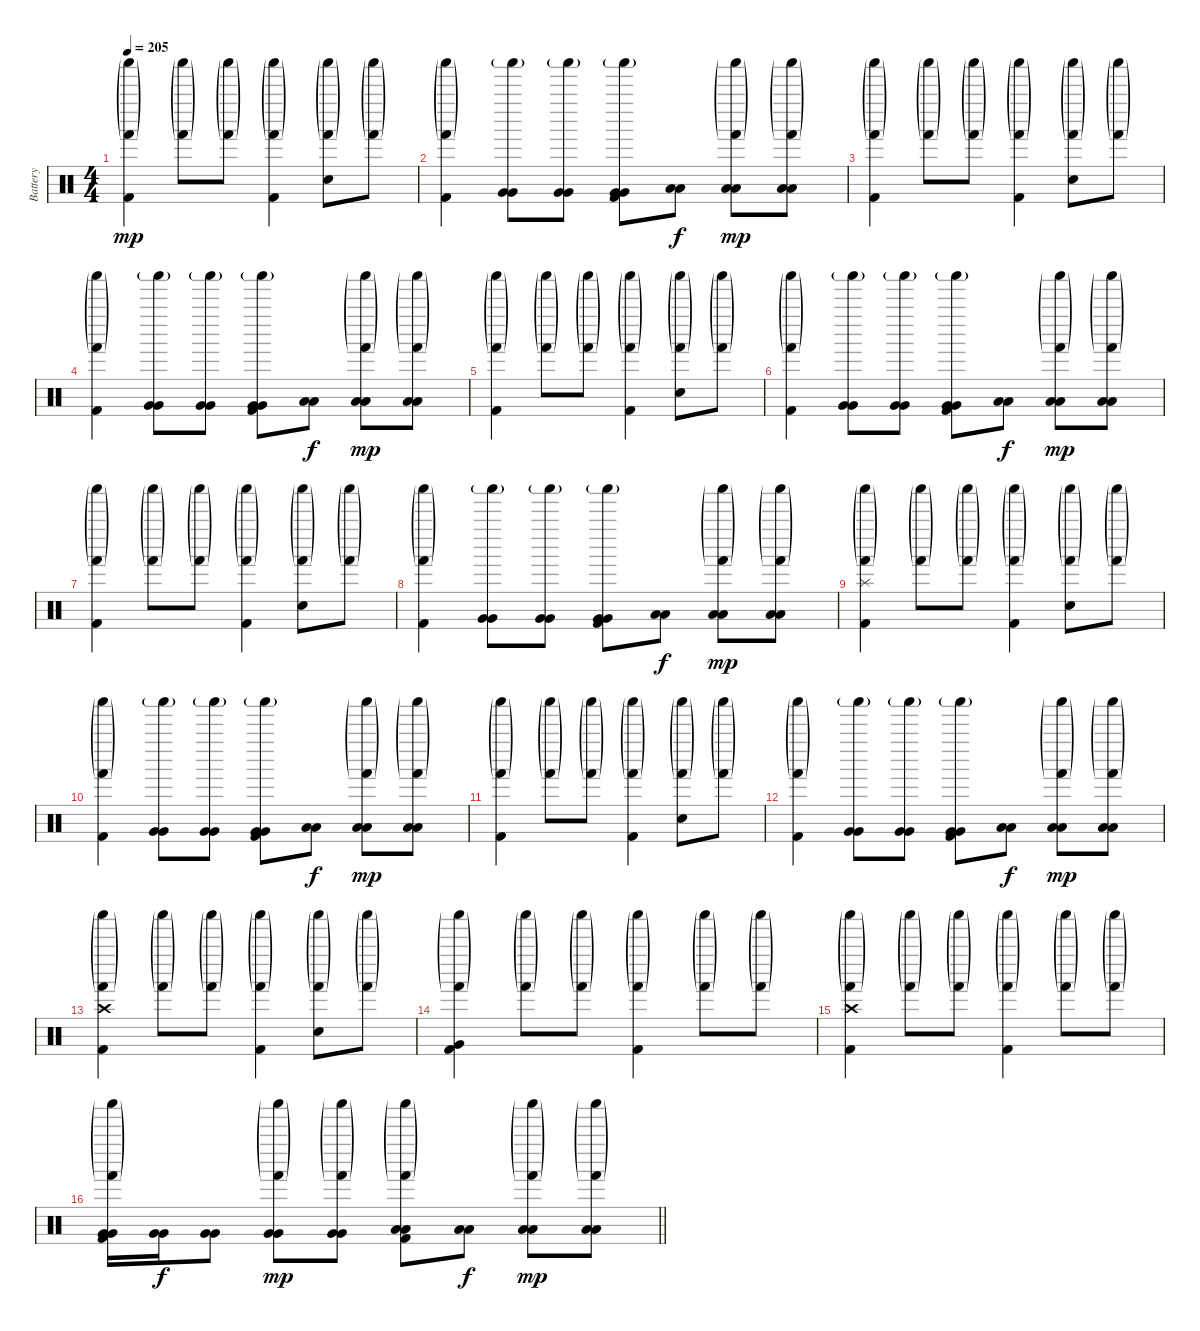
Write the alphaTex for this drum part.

\track ("Battery" "Battery") {instrument percussion}
\staff {score}
\articulation defaults
\ts (4 4)
\tempo 205
\clef neutral
\ks c
("Shaker (hit)"{g} "Hand (hit)"{g} "Kick (hit) 2").4{dy mp} ("Shaker (hit)"{g} "Hand (hit)"{g}).8 ("Shaker (hit)"{g} "Hand (hit)"{g}).8 ("Shaker (hit)"{g} "Hand (hit)"{g} "Kick (hit) 2").4 ("Shaker (hit)"{g} "Hand (hit)"{g} "Electric Snare (hit)").8 ("Shaker (hit)"{g} "Hand (hit)"{g}).8 |
("Shaker (hit)"{g} "Hand (hit)"{g} "Kick (hit) 2").4 ("Shaker (hit)"{g} "Very Low Tom (hit)" "Very Low Tom (hit)").8 ("Shaker (hit)"{g} "Very Low Tom (hit)" "Very Low Tom (hit)").8 ("Shaker (hit)"{g} "Very Low Tom (hit)" "Very Low Tom (hit)" "Kick (hit) 2").8 ("Low Floor Tom (hit)" "Low Floor Tom (hit)").8{dy f} ("Shaker (hit)"{g} "Hand (hit)"{g} "Low Floor Tom (hit)" "Low Floor Tom (hit)").8{dy mp} ("Shaker (hit)"{g} "Hand (hit)"{g} "Low Floor Tom (hit)" "Low Floor Tom (hit)").8 |
("Shaker (hit)"{g} "Hand (hit)"{g} "Kick (hit) 2").4 ("Shaker (hit)"{g} "Hand (hit)"{g}).8 ("Shaker (hit)"{g} "Hand (hit)"{g}).8 ("Shaker (hit)"{g} "Hand (hit)"{g} "Kick (hit) 2").4 ("Shaker (hit)"{g} "Hand (hit)"{g} "Electric Snare (hit)").8 ("Shaker (hit)"{g} "Hand (hit)"{g}).8 |
("Shaker (hit)"{g} "Hand (hit)"{g} "Kick (hit) 2").4 ("Shaker (hit)"{g} "Very Low Tom (hit)" "Very Low Tom (hit)").8 ("Shaker (hit)"{g} "Very Low Tom (hit)" "Very Low Tom (hit)").8 ("Shaker (hit)"{g} "Very Low Tom (hit)" "Very Low Tom (hit)" "Kick (hit) 2").8 ("Low Floor Tom (hit)" "Low Floor Tom (hit)").8{dy f} ("Shaker (hit)"{g} "Hand (hit)"{g} "Low Floor Tom (hit)" "Low Floor Tom (hit)").8{dy mp} ("Shaker (hit)"{g} "Hand (hit)"{g} "Low Floor Tom (hit)" "Low Floor Tom (hit)").8 |
("Shaker (hit)"{g} "Hand (hit)"{g} "Kick (hit) 2").4 ("Shaker (hit)"{g} "Hand (hit)"{g}).8 ("Shaker (hit)"{g} "Hand (hit)"{g}).8 ("Shaker (hit)"{g} "Hand (hit)"{g} "Kick (hit) 2").4 ("Shaker (hit)"{g} "Hand (hit)"{g} "Electric Snare (hit)").8 ("Shaker (hit)"{g} "Hand (hit)"{g}).8 |
("Shaker (hit)"{g} "Hand (hit)"{g} "Kick (hit) 2").4 ("Shaker (hit)"{g} "Very Low Tom (hit)" "Very Low Tom (hit)").8 ("Shaker (hit)"{g} "Very Low Tom (hit)" "Very Low Tom (hit)").8 ("Shaker (hit)"{g} "Very Low Tom (hit)" "Very Low Tom (hit)" "Kick (hit) 2").8 ("Low Floor Tom (hit)" "Low Floor Tom (hit)").8{dy f} ("Shaker (hit)"{g} "Hand (hit)"{g} "Low Floor Tom (hit)" "Low Floor Tom (hit)").8{dy mp} ("Shaker (hit)"{g} "Hand (hit)"{g} "Low Floor Tom (hit)" "Low Floor Tom (hit)").8 |
("Shaker (hit)"{g} "Hand (hit)"{g} "Kick (hit) 2").4 ("Shaker (hit)"{g} "Hand (hit)"{g}).8 ("Shaker (hit)"{g} "Hand (hit)"{g}).8 ("Shaker (hit)"{g} "Hand (hit)"{g} "Kick (hit) 2").4 ("Shaker (hit)"{g} "Hand (hit)"{g} "Electric Snare (hit)").8 ("Shaker (hit)"{g} "Hand (hit)"{g}).8 |
("Shaker (hit)"{g} "Hand (hit)"{g} "Kick (hit) 2").4 ("Shaker (hit)"{g} "Very Low Tom (hit)" "Very Low Tom (hit)").8 ("Shaker (hit)"{g} "Very Low Tom (hit)" "Very Low Tom (hit)").8 ("Shaker (hit)"{g} "Very Low Tom (hit)" "Very Low Tom (hit)" "Kick (hit) 2").8 ("Low Floor Tom (hit)" "Low Floor Tom (hit)").8{dy f} ("Shaker (hit)"{g} "Hand (hit)"{g} "Low Floor Tom (hit)" "Low Floor Tom (hit)").8{dy mp} ("Shaker (hit)"{g} "Hand (hit)"{g} "Low Floor Tom (hit)" "Low Floor Tom (hit)").8 |
("Shaker (hit)"{g} "Splash (hit)" "Hand (hit)"{g} "Kick (hit) 2").4 ("Shaker (hit)"{g} "Hand (hit)"{g}).8 ("Shaker (hit)"{g} "Hand (hit)"{g}).8 ("Shaker (hit)"{g} "Hand (hit)"{g} "Kick (hit) 2").4 ("Shaker (hit)"{g} "Hand (hit)"{g} "Electric Snare (hit)").8 ("Shaker (hit)"{g} "Hand (hit)"{g}).8 |
("Shaker (hit)"{g} "Hand (hit)"{g} "Kick (hit) 2").4 ("Shaker (hit)"{g} "Very Low Tom (hit)" "Very Low Tom (hit)").8 ("Shaker (hit)"{g} "Very Low Tom (hit)" "Very Low Tom (hit)").8 ("Shaker (hit)"{g} "Very Low Tom (hit)" "Very Low Tom (hit)" "Kick (hit) 2").8 ("Low Floor Tom (hit)" "Low Floor Tom (hit)").8{dy f} ("Shaker (hit)"{g} "Hand (hit)"{g} "Low Floor Tom (hit)" "Low Floor Tom (hit)").8{dy mp} ("Shaker (hit)"{g} "Hand (hit)"{g} "Low Floor Tom (hit)" "Low Floor Tom (hit)").8 |
("Shaker (hit)"{g} "Hand (hit)"{g} "Kick (hit) 2").4 ("Shaker (hit)"{g} "Hand (hit)"{g}).8 ("Shaker (hit)"{g} "Hand (hit)"{g}).8 ("Shaker (hit)"{g} "Hand (hit)"{g} "Kick (hit) 2").4 ("Shaker (hit)"{g} "Hand (hit)"{g} "Electric Snare (hit)").8 ("Shaker (hit)"{g} "Hand (hit)"{g}).8 |
("Shaker (hit)"{g} "Hand (hit)"{g} "Kick (hit) 2").4 ("Shaker (hit)"{g} "Very Low Tom (hit)" "Very Low Tom (hit)").8 ("Shaker (hit)"{g} "Very Low Tom (hit)" "Very Low Tom (hit)").8 ("Shaker (hit)"{g} "Very Low Tom (hit)" "Very Low Tom (hit)" "Kick (hit) 2").8 ("Low Floor Tom (hit)" "Low Floor Tom (hit)").8{dy f} ("Shaker (hit)"{g} "Hand (hit)"{g} "Low Floor Tom (hit)" "Low Floor Tom (hit)").8{dy mp} ("Shaker (hit)"{g} "Hand (hit)"{g} "Low Floor Tom (hit)" "Low Floor Tom (hit)").8 |
("Shaker (hit)"{g} "Crash high (hit)" "Hand (hit)"{g} "Kick (hit) 2").4 ("Shaker (hit)"{g} "Hand (hit)"{g}).8 ("Shaker (hit)"{g} "Hand (hit)"{g}).8 ("Shaker (hit)"{g} "Hand (hit)"{g} "Kick (hit) 2").4 ("Shaker (hit)"{g} "Hand (hit)"{g} "Electric Snare (hit)").8 ("Shaker (hit)"{g} "Hand (hit)"{g}).8 |
("Shaker (hit)"{g} "Hand (hit)"{g} "Very Low Tom (hit)" "Kick (hit) 2").4 ("Shaker (hit)"{g} "Hand (hit)"{g}).8 ("Shaker (hit)"{g} "Hand (hit)"{g}).8 ("Shaker (hit)"{g} "Hand (hit)"{g} "Kick (hit) 2").4 ("Shaker (hit)"{g} "Hand (hit)"{g}).8 ("Shaker (hit)"{g} "Hand (hit)"{g}).8 |
("Shaker (hit)"{g} "Crash high (hit)" "Hand (hit)"{g} "Kick (hit) 2").4 ("Shaker (hit)"{g} "Hand (hit)"{g}).8 ("Shaker (hit)"{g} "Hand (hit)"{g}).8 ("Shaker (hit)"{g} "Hand (hit)"{g} "Kick (hit) 2").4 ("Shaker (hit)"{g} "Hand (hit)"{g}).8 ("Shaker (hit)"{g} "Hand (hit)"{g}).8 |
\barLineRight lightlight
("Shaker (hit)"{g} "Hand (hit)"{g} "Very Low Tom (hit)" "Very Low Tom (hit)" "Kick (hit) 2").16 ("Very Low Tom (hit)" "Very Low Tom (hit)").16{dy f} ("Very Low Tom (hit)" "Very Low Tom (hit)").8 ("Shaker (hit)"{g} "Hand (hit)"{g} "Very Low Tom (hit)" "Very Low Tom (hit)").8{dy mp} ("Shaker (hit)"{g} "Hand (hit)"{g} "Very Low Tom (hit)" "Very Low Tom (hit)").8 ("Shaker (hit)"{g} "Hand (hit)"{g} "Low Floor Tom (hit)" "Low Floor Tom (hit)" "Kick (hit) 2").8 ("Low Floor Tom (hit)" "Low Floor Tom (hit)").8{dy f} ("Shaker (hit)"{g} "Hand (hit)"{g} "Low Floor Tom (hit)" "Low Floor Tom (hit)").8{dy mp} ("Shaker (hit)"{g} "Hand (hit)"{g} "Low Floor Tom (hit)" "Low Floor Tom (hit)").8
